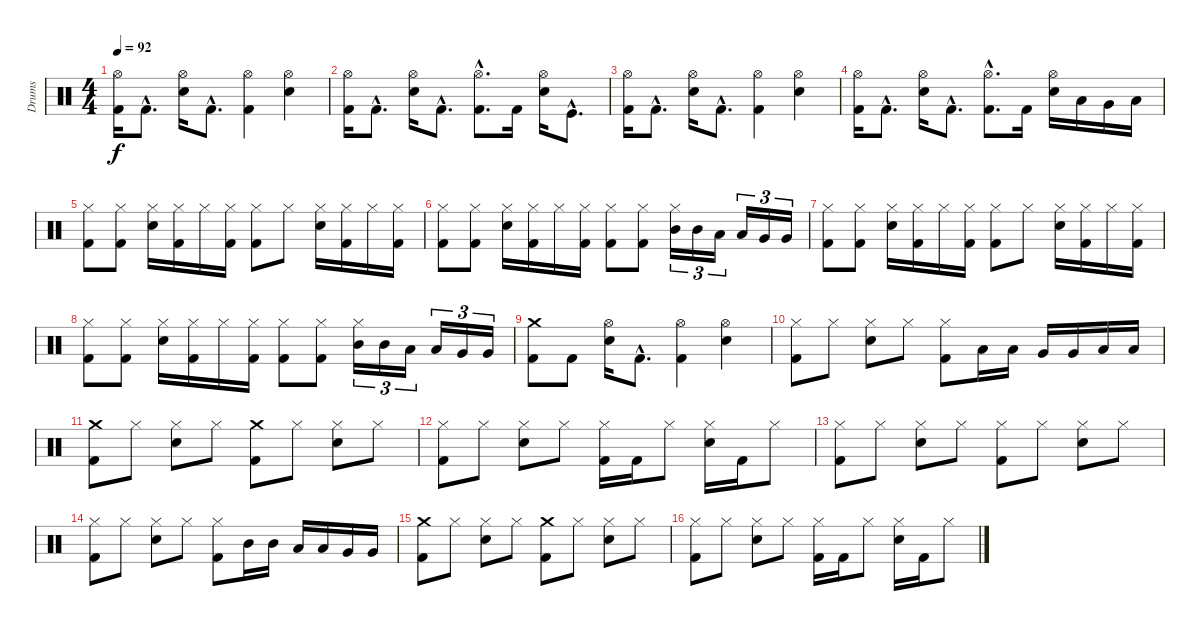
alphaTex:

\track ("Drums" "Drums") {instrument percussion}
\staff {score}
\articulation defaults
\ts (4 4)
\tempo 92
\clef neutral
\ks c
("Hi-Hat (open)" "Kick (hit) 2").16{dy f} "Kick (hit) 2"{hac}.8{d} ("Hi-Hat (open)" "Electric Snare (hit)").16 "Kick (hit) 2"{hac}.8{d} ("Hi-Hat (open)" "Kick (hit) 2").4 ("Hi-Hat (open)" "Electric Snare (hit)").4 |
("Hi-Hat (open)" "Kick (hit) 2").16 "Kick (hit) 2"{hac}.8{d} ("Hi-Hat (open)" "Electric Snare (hit)").16 "Kick (hit) 2"{hac}.8{d} ("Hi-Hat (open)"{hac} "Kick (hit) 2"{hac}).8{d} "Kick (hit) 2".16 ("Hi-Hat (open)" "Electric Snare (hit)").16 "Kick (hit)"{hac}.8{d} |
("Hi-Hat (open)" "Kick (hit) 2").16 "Kick (hit) 2"{hac}.8{d} ("Hi-Hat (open)" "Electric Snare (hit)").16 "Kick (hit) 2"{hac}.8{d} ("Hi-Hat (open)" "Kick (hit) 2").4 ("Hi-Hat (open)" "Electric Snare (hit)").4 |
("Hi-Hat (open)" "Kick (hit) 2").16 "Kick (hit) 2"{hac}.8{d} ("Hi-Hat (open)" "Electric Snare (hit)").16 "Kick (hit) 2"{hac}.8{d} ("Hi-Hat (open)"{hac} "Kick (hit) 2"{hac}).8{d} "Kick (hit) 2".16 ("Hi-Hat (open)" "Electric Snare (hit)").16 "Low Tom (hit)".16 "Very Low Tom (hit)".16 "Low Floor Tom (hit)".16 |
("Hi-Hat (closed)" "Kick (hit) 2").8 ("Hi-Hat (closed)" "Kick (hit) 2").8 ("Hi-Hat (closed)" "Electric Snare (hit)").16 ("Hi-Hat (closed)" "Kick (hit) 2").16 "Hi-Hat (closed)".16 ("Hi-Hat (closed)" "Kick (hit) 2").16 ("Hi-Hat (closed)" "Kick (hit) 2").8 "Hi-Hat (closed)".8 ("Hi-Hat (closed)" "Electric Snare (hit)").16 ("Hi-Hat (closed)" "Kick (hit) 2").16 "Hi-Hat (closed)".16 ("Hi-Hat (closed)" "Kick (hit) 2").16 |
("Hi-Hat (closed)" "Kick (hit) 2").8 ("Hi-Hat (closed)" "Kick (hit) 2").8 ("Hi-Hat (closed)" "Electric Snare (hit)").16 ("Hi-Hat (closed)" "Kick (hit) 2").16 "Hi-Hat (closed)".16 ("Hi-Hat (closed)" "Kick (hit) 2").16 ("Hi-Hat (closed)" "Kick (hit) 2").8 ("Hi-Hat (closed)" "Kick (hit) 2").8 ("Hi-Hat (closed)" "Mid Tom (hit)").16{tu (3 2)} "Mid Tom (hit)".16{tu (3 2)} "Low Tom (hit)".16{tu (3 2)} "Low Tom (hit)".16{tu (3 2)} "Very Low Tom (hit)".16{tu (3 2)} "Very Low Tom (hit)".16{tu (3 2)} |
("Hi-Hat (closed)" "Kick (hit) 2").8 ("Hi-Hat (closed)" "Kick (hit) 2").8 ("Hi-Hat (closed)" "Electric Snare (hit)").16 ("Hi-Hat (closed)" "Kick (hit) 2").16 "Hi-Hat (closed)".16 ("Hi-Hat (closed)" "Kick (hit) 2").16 ("Hi-Hat (closed)" "Kick (hit) 2").8 "Hi-Hat (closed)".8 ("Hi-Hat (closed)" "Electric Snare (hit)").16 ("Hi-Hat (closed)" "Kick (hit) 2").16 "Hi-Hat (closed)".16 ("Hi-Hat (closed)" "Kick (hit) 2").16 |
("Hi-Hat (closed)" "Kick (hit) 2").8 ("Hi-Hat (closed)" "Kick (hit) 2").8 ("Hi-Hat (closed)" "Electric Snare (hit)").16 ("Hi-Hat (closed)" "Kick (hit) 2").16 "Hi-Hat (closed)".16 ("Hi-Hat (closed)" "Kick (hit) 2").16 ("Hi-Hat (closed)" "Kick (hit) 2").8 ("Hi-Hat (closed)" "Kick (hit) 2").8 ("Hi-Hat (closed)" "Mid Tom (hit)").16{tu (3 2)} "Mid Tom (hit)".16{tu (3 2)} "Low Tom (hit)".16{tu (3 2)} "Low Tom (hit)".16{tu (3 2)} "Very Low Tom (hit)".16{tu (3 2)} "Very Low Tom (hit)".16{tu (3 2)} |
("Crash medium (hit)" "Kick (hit) 2").8 "Kick (hit) 2".8 ("Hi-Hat (open)" "Electric Snare (hit)").16 "Kick (hit) 2"{hac}.8{d} ("Hi-Hat (open)" "Kick (hit) 2").4 ("Hi-Hat (open)" "Electric Snare (hit)").4 |
("Hi-Hat (closed)" "Kick (hit) 2").8 "Hi-Hat (closed)".8 ("Hi-Hat (closed)" "Electric Snare (hit)").8 "Hi-Hat (closed)".8 ("Hi-Hat (closed)" "Kick (hit) 2").8 "Low Tom (hit)".16 "Low Tom (hit)".16 "Very Low Tom (hit)".16 "Very Low Tom (hit)".16 "Low Floor Tom (hit)".16 "Low Floor Tom (hit)".16 |
("Crash medium (hit)" "Kick (hit) 2").8 "Hi-Hat (closed)".8 ("Hi-Hat (closed)" "Electric Snare (hit)").8 "Hi-Hat (closed)".8 ("Crash medium (hit)" "Kick (hit) 2").8 "Hi-Hat (closed)".8 ("Hi-Hat (closed)" "Electric Snare (hit)").8 "Hi-Hat (closed)".8 |
("Hi-Hat (closed)" "Kick (hit) 2").8 "Hi-Hat (closed)".8 ("Hi-Hat (closed)" "Electric Snare (hit)").8 "Hi-Hat (closed)".8 ("Hi-Hat (closed)" "Kick (hit) 2").16 "Kick (hit) 2".16 "Hi-Hat (closed)".8 ("Hi-Hat (closed)" "Electric Snare (hit)").16 "Kick (hit) 2".16 "Hi-Hat (closed)".8 |
("Hi-Hat (closed)" "Kick (hit) 2").8 "Hi-Hat (closed)".8 ("Hi-Hat (closed)" "Electric Snare (hit)").8 "Hi-Hat (closed)".8 ("Hi-Hat (closed)" "Kick (hit) 2").8 "Hi-Hat (closed)".8 ("Hi-Hat (closed)" "Electric Snare (hit)").8 "Hi-Hat (closed)".8 |
("Hi-Hat (closed)" "Kick (hit) 2").8 "Hi-Hat (closed)".8 ("Hi-Hat (closed)" "Electric Snare (hit)").8 "Hi-Hat (closed)".8 ("Hi-Hat (closed)" "Kick (hit) 2").8 "Mid Tom (hit)".16 "Mid Tom (hit)".16 "Low Tom (hit)".16 "Low Tom (hit)".16 "Very Low Tom (hit)".16 "Very Low Tom (hit)".16 |
("Crash medium (hit)" "Kick (hit) 2").8 "Hi-Hat (closed)".8 ("Hi-Hat (closed)" "Electric Snare (hit)").8 "Hi-Hat (closed)".8 ("Crash medium (hit)" "Kick (hit) 2").8 "Hi-Hat (closed)".8 ("Hi-Hat (closed)" "Electric Snare (hit)").8 "Hi-Hat (closed)".8 |
("Hi-Hat (closed)" "Kick (hit) 2").8 "Hi-Hat (closed)".8 ("Hi-Hat (closed)" "Electric Snare (hit)").8 "Hi-Hat (closed)".8 ("Hi-Hat (closed)" "Kick (hit) 2").16 "Kick (hit) 2".16 "Hi-Hat (closed)".8 ("Hi-Hat (closed)" "Electric Snare (hit)").16 "Kick (hit) 2".16 "Hi-Hat (closed)".8
